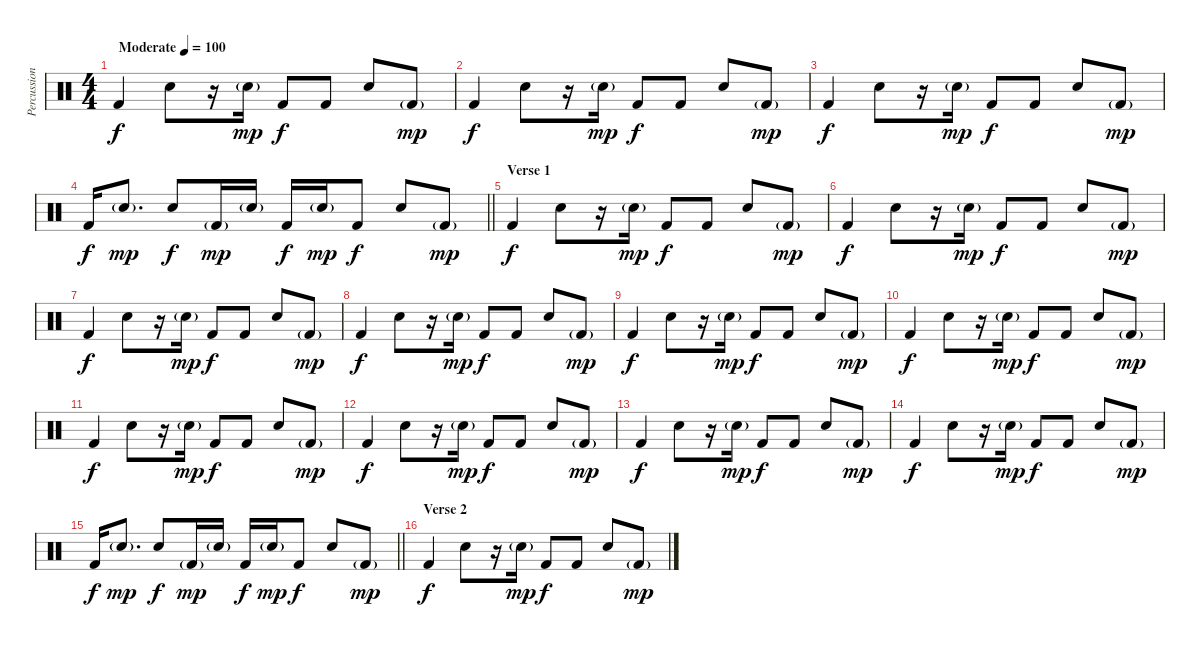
\track ("Percussion" "Percussion") {instrument percussion}
\staff {score}
\articulation defaults
\ts (4 4)
\tempo (100 "Moderate")
\clef neutral
\ks c "Kick (hit) 2".4{dy f} "Snare (hit) 2".8
r.16 "Snare (hit) 2"{g}.16{dy mp} "Kick (hit) 2".8{dy f} "Kick (hit) 2".8 "Snare (hit) 2".8 "Kick (hit) 2"{g}.8{dy mp} |
"Kick (hit) 2".4{dy f} "Snare (hit) 2".8 r.16 "Snare (hit) 2"{g}.16{dy mp} "Kick (hit) 2".8{dy f} "Kick (hit) 2".8 "Snare (hit) 2".8 "Kick (hit) 2"{g}.8{dy mp} |
"Kick (hit) 2".4{dy f} "Snare (hit) 2".8 r.16 "Snare (hit) 2"{g}.16{dy mp} "Kick (hit) 2".8{dy f} "Kick (hit) 2".8 "Snare (hit) 2".8 "Kick (hit) 2"{g}.8{dy mp} |
\barLineRight lightlight "Kick (hit) 2".16{dy f} "Snare (hit) 2"{g}.8{d dy mp} "Snare (hit) 2".8{dy f} "Kick (hit) 2"{g}.16{dy mp} "Snare (hit) 2"{g}.16 "Kick (hit) 2".16{dy f} "Snare (hit) 2"{g}.16{dy mp} "Kick (hit) 2".8{dy f} "Snare (hit) 2".8 "Kick (hit) 2"{g}.8{dy mp}
|
\section ("" "Verse 1")
"Kick (hit) 2".4{dy f} "Snare (hit) 2".8 r.16 "Snare (hit) 2"{g}.16{dy mp} "Kick (hit) 2".8{dy f} "Kick (hit) 2".8 "Snare (hit) 2".8 "Kick (hit) 2"{g}.8{dy mp} |
"Kick (hit) 2".4{dy f} "Snare (hit) 2".8 r.16 "Snare (hit) 2"{g}.16{dy mp} "Kick (hit) 2".8{dy f} "Kick (hit) 2".8 "Snare (hit) 2".8 "Kick (hit) 2"{g}.8{dy mp} |
"Kick (hit) 2".4{dy f} "Snare (hit) 2".8 r.16 "Snare (hit) 2"{g}.16{dy mp} "Kick (hit) 2".8{dy f} "Kick (hit) 2".8 "Snare (hit) 2".8 "Kick (hit) 2"{g}.8{dy mp} |
"Kick (hit) 2".4{dy f} "Snare (hit) 2".8 r.16 "Snare (hit) 2"{g}.16{dy mp} "Kick (hit) 2".8{dy f} "Kick (hit) 2".8 "Snare (hit) 2".8 "Kick (hit) 2"{g}.8{dy mp} |
"Kick (hit) 2".4{dy f} "Snare (hit) 2".8 r.16 "Snare (hit) 2"{g}.16{dy mp} "Kick (hit) 2".8{dy f} "Kick (hit) 2".8 "Snare (hit) 2".8 "Kick (hit) 2"{g}.8{dy mp} |
"Kick (hit) 2".4{dy f} "Snare (hit) 2".8 r.16 "Snare (hit) 2"{g}.16{dy mp} "Kick (hit) 2".8{dy f} "Kick (hit) 2".8 "Snare (hit) 2".8 "Kick (hit) 2"{g}.8{dy mp} |
"Kick (hit) 2".4{dy f} "Snare (hit) 2".8 r.16 "Snare (hit) 2"{g}.16{dy mp} "Kick (hit) 2".8{dy f} "Kick (hit) 2".8 "Snare (hit) 2".8 "Kick (hit) 2"{g}.8{dy mp} |
"Kick (hit) 2".4{dy f} "Snare (hit) 2".8 r.16 "Snare (hit) 2"{g}.16{dy mp} "Kick (hit) 2".8{dy f} "Kick (hit) 2".8 "Snare (hit) 2".8 "Kick (hit) 2"{g}.8{dy mp} |
"Kick (hit) 2".4{dy f} "Snare (hit) 2".8 r.16 "Snare (hit) 2"{g}.16{dy mp} "Kick (hit) 2".8{dy f} "Kick (hit) 2".8 "Snare (hit) 2".8 "Kick (hit) 2"{g}.8{dy mp} |
"Kick (hit) 2".4{dy f} "Snare (hit) 2".8 r.16 "Snare (hit) 2"{g}.16{dy mp} "Kick (hit) 2".8{dy f} "Kick (hit) 2".8 "Snare (hit) 2".8 "Kick (hit) 2"{g}.8{dy mp} |
\barLineRight lightlight "Kick (hit) 2".16{dy f} "Snare (hit) 2"{g}.8{d dy mp} "Snare (hit) 2".8{dy f} "Kick (hit) 2"{g}.16{dy mp} "Snare (hit) 2"{g}.16 "Kick (hit) 2".16{dy f} "Snare (hit) 2"{g}.16{dy mp} "Kick (hit) 2".8{dy f} "Snare (hit) 2".8 "Kick (hit) 2"{g}.8{dy mp}
|
\section ("" "Verse 2")
"Kick (hit) 2".4{dy f} "Snare (hit) 2".8 r.16 "Snare (hit) 2"{g}.16{dy mp} "Kick (hit) 2".8{dy f} "Kick (hit) 2".8 "Snare (hit) 2".8 "Kick (hit) 2"{g}.8{dy mp}
